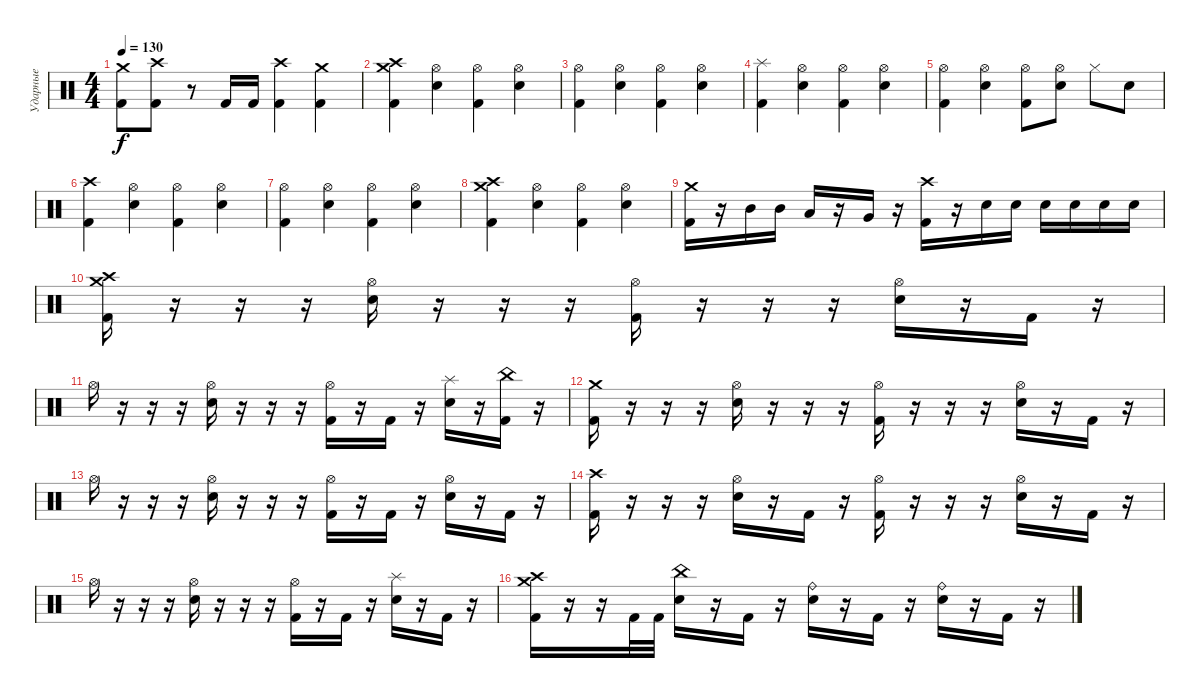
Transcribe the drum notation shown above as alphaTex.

\track ("Ударные" "Ударные") {instrument percussion}
\staff {score}
\articulation defaults
\ts (4 4)
\tempo 130
\clef neutral
\ks c
("Kick (hit) 2" "Crash medium (hit)").8{dy f} ("Kick (hit) 2" "Crash high (hit)").8 r.8 "Kick (hit) 2".16 "Kick (hit) 2".16 ("Kick (hit) 2" "Crash high (hit)").4 ("Kick (hit) 2" "Crash medium (hit)").4 |
("Kick (hit) 2" "Crash high (hit)" "Crash medium (hit)").4 ("Electric Snare (hit)" "Hi-Hat (open)").4 ("Kick (hit) 2" "Hi-Hat (open)").4 ("Electric Snare (hit)" "Hi-Hat (open)").4 |
("Kick (hit) 2" "Hi-Hat (open)").4 ("Electric Snare (hit)" "Hi-Hat (open)").4 ("Kick (hit) 2" "Hi-Hat (open)").4 ("Electric Snare (hit)" "Hi-Hat (open)").4 |
("Kick (hit) 2" "Splash (hit)").4 ("Electric Snare (hit)" "Hi-Hat (open)").4 ("Kick (hit) 2" "Hi-Hat (open)").4 ("Electric Snare (hit)" "Hi-Hat (open)").4 |
("Kick (hit) 2" "Hi-Hat (open)").4 ("Electric Snare (hit)" "Hi-Hat (open)").4 ("Kick (hit) 2" "Hi-Hat (open)").8 ("Electric Snare (hit)" "Hi-Hat (open)").8 "Hi-Hat (closed)".8 "Electric Snare (hit)".8 |
("Kick (hit) 2" "Crash high (hit)").4 ("Electric Snare (hit)" "Hi-Hat (open)").4 ("Kick (hit) 2" "Hi-Hat (open)").4 ("Electric Snare (hit)" "Hi-Hat (open)").4 |
("Kick (hit) 2" "Hi-Hat (open)").4 ("Electric Snare (hit)" "Hi-Hat (open)").4 ("Kick (hit) 2" "Hi-Hat (open)").4 ("Electric Snare (hit)" "Hi-Hat (open)").4 |
("Kick (hit) 2" "Crash high (hit)" "Crash medium (hit)").4 ("Electric Snare (hit)" "Hi-Hat (open)").4 ("Kick (hit) 2" "Hi-Hat (open)").4 ("Electric Snare (hit)" "Hi-Hat (open)").4 |
("Kick (hit) 2" "Crash medium (hit)").16 r.16 "Mid Tom (hit)".16 "Mid Tom (hit)".16 "Low Tom (hit)".16 r.16 "Very Low Tom (hit)".16 r.16 ("Kick (hit) 2" "Crash high (hit)").16 r.16 "Electric Snare (hit)".16 "Electric Snare (hit)".16 "Electric Snare (hit)".16 "Electric Snare (hit)".16 "Electric Snare (hit)".16 "Electric Snare (hit)".16 |
("Kick (hit) 2" "Crash high (hit)" "Crash medium (hit)").16 r.16 r.16 r.16 ("Electric Snare (hit)" "Hi-Hat (open)").16 r.16 r.16 r.16 ("Kick (hit) 2" "Hi-Hat (open)").16 r.16 r.16 r.16 ("Electric Snare (hit)" "Hi-Hat (open)").16 r.16 "Kick (hit) 2".16 r.16 |
"Hi-Hat (open)".16 r.16 r.16 r.16 ("Electric Snare (hit)" "Hi-Hat (open)").16 r.16 r.16 r.16 ("Kick (hit) 2" "Hi-Hat (open)").16 r.16 "Kick (hit) 2".16 r.16 ("Electric Snare (hit)" "Splash (hit)").16 r.16 ("Kick (hit) 2" "China (hit)").16 r.16 |
("Kick (hit) 2" "Crash medium (hit)").16 r.16 r.16 r.16 ("Electric Snare (hit)" "Hi-Hat (open)").16 r.16 r.16 r.16 ("Kick (hit) 2" "Hi-Hat (open)").16 r.16 r.16 r.16 ("Electric Snare (hit)" "Hi-Hat (open)").16 r.16 "Kick (hit) 2".16 r.16 |
"Hi-Hat (open)".16 r.16 r.16 r.16 ("Electric Snare (hit)" "Hi-Hat (open)").16 r.16 r.16 r.16 ("Kick (hit) 2" "Hi-Hat (open)").16 r.16 "Kick (hit) 2".16 r.16 ("Electric Snare (hit)" "Hi-Hat (open)").16 r.16 "Kick (hit) 2".16 r.16 |
("Kick (hit) 2" "Crash high (hit)").16 r.16 r.16 r.16 ("Electric Snare (hit)" "Hi-Hat (open)").16 r.16 "Kick (hit) 2".16 r.16 ("Kick (hit) 2" "Hi-Hat (open)").16 r.16 r.16 r.16 ("Electric Snare (hit)" "Hi-Hat (open)").16 r.16 "Kick (hit) 2".16 r.16 |
"Hi-Hat (open)".16 r.16 r.16 r.16 ("Electric Snare (hit)" "Hi-Hat (open)").16 r.16 r.16 r.16 ("Kick (hit) 2" "Hi-Hat (open)").16 r.16 "Kick (hit) 2".16 r.16 ("Electric Snare (hit)" "Splash (hit)").16 r.16 "Kick (hit) 2".16 r.16 |
("Kick (hit) 2" "Crash high (hit)" "Crash medium (hit)").16 r.16 r.16 "Kick (hit) 2".32 "Kick (hit) 2".32 ("Electric Snare (hit)" "China (hit)").16 r.16 "Kick (hit) 2".16 r.16 ("Electric Snare (hit)" "Ride (bell)").16 r.16 "Kick (hit) 2".16 r.16 ("Electric Snare (hit)" "Ride (bell)").16 r.16 "Kick (hit) 2".16 r.16
